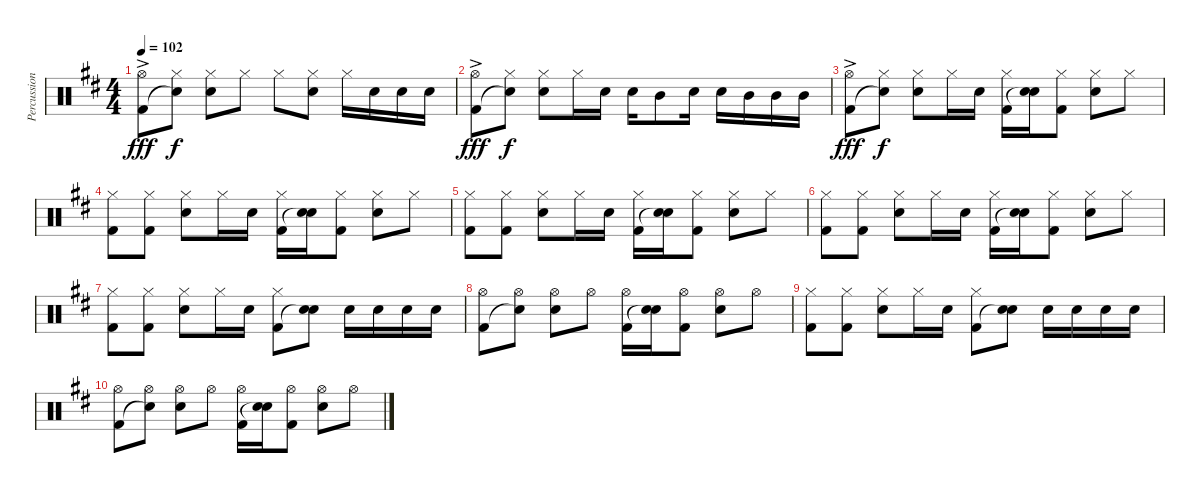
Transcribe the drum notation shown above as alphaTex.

\track ("Percussion" "Percussion") {instrument percussion}
\staff {score}
\articulation defaults
\ts (4 4)
\tempo 102
\clef neutral
\ks d
("Hi-Hat (open)"{ac} "Kick (hit) 2"{ac}).8{dy fff} ("Hi-Hat (closed)" "Snare (hit)"{t}).8{dy f} ("Hi-Hat (closed)" "Snare (hit) 2").8 "Hi-Hat (closed)".8 "Hi-Hat (closed)".8 ("Hi-Hat (closed)" "Snare (hit) 2").8 "Hi-Hat (closed)".16 "Snare (hit) 2".16 "Snare (hit) 2".16 "Snare (hit) 2".16 |
("Hi-Hat (open)"{ac} "Kick (hit) 2"{ac}).8{dy fff} ("Hi-Hat (closed)" "Snare (hit)"{t}).8{dy f} ("Hi-Hat (closed)" "Snare (hit) 2").8 "Hi-Hat (closed)".16 "Snare (hit) 2".16 "Snare (hit) 2".16 "Mid Tom (hit)".8 "Snare (hit) 2".16 "Snare (hit) 2".16 "Mid Tom (hit)".16 "Mid Tom (hit)".16 "Mid Tom (hit)".16 |
("Hi-Hat (open)"{ac} "Kick (hit) 2"{ac}).8{dy fff} ("Hi-Hat (closed)" "Snare (hit)"{t}).8{dy f} ("Hi-Hat (closed)" "Snare (hit) 2").8 "Hi-Hat (closed)".16 "Snare (hit) 2".16 ("Hi-Hat (closed)" "Kick (hit) 2").16 ("Snare (hit) 2" "Snare (hit)"{t}).16 ("Hi-Hat (closed)" "Kick (hit) 2").8 ("Hi-Hat (closed)" "Snare (hit) 2").8 "Hi-Hat (closed)".8 |
("Hi-Hat (closed)" "Kick (hit) 2").8 ("Hi-Hat (closed)" "Kick (hit) 2").8 ("Hi-Hat (closed)" "Snare (hit) 2").8 "Hi-Hat (closed)".16 "Snare (hit) 2".16 ("Hi-Hat (closed)" "Kick (hit) 2").16 ("Snare (hit) 2" "Snare (hit)"{t}).16 ("Hi-Hat (closed)" "Kick (hit) 2").8 ("Hi-Hat (closed)" "Snare (hit) 2").8 "Hi-Hat (closed)".8 |
("Hi-Hat (closed)" "Kick (hit) 2").8 ("Hi-Hat (closed)" "Kick (hit) 2").8 ("Hi-Hat (closed)" "Snare (hit) 2").8 "Hi-Hat (closed)".16 "Snare (hit) 2".16 ("Hi-Hat (closed)" "Kick (hit) 2").16 ("Snare (hit) 2" "Snare (hit)"{t}).16 ("Hi-Hat (closed)" "Kick (hit) 2").8 ("Hi-Hat (closed)" "Snare (hit) 2").8 "Hi-Hat (closed)".8 |
("Hi-Hat (closed)" "Kick (hit) 2").8 ("Hi-Hat (closed)" "Kick (hit) 2").8 ("Hi-Hat (closed)" "Snare (hit) 2").8 "Hi-Hat (closed)".16 "Snare (hit) 2".16 ("Hi-Hat (closed)" "Kick (hit) 2").16 ("Snare (hit) 2" "Snare (hit)"{t}).16 ("Hi-Hat (closed)" "Kick (hit) 2").8 ("Hi-Hat (closed)" "Snare (hit) 2").8 "Hi-Hat (closed)".8 |
("Hi-Hat (closed)" "Kick (hit) 2").8 ("Hi-Hat (closed)" "Kick (hit) 2").8 ("Hi-Hat (closed)" "Snare (hit) 2").8 "Hi-Hat (closed)".16 "Snare (hit) 2".16 ("Hi-Hat (closed)" "Kick (hit) 2").8 ("Snare (hit) 2" "Snare (hit)"{t}).8 "Snare (hit) 2".16 "Snare (hit) 2".16 "Snare (hit) 2".16 "Snare (hit) 2".16 |
("Hi-Hat (open)" "Kick (hit) 2").8 ("Hi-Hat (open)" "Snare (hit)"{t}).8 ("Hi-Hat (open)" "Snare (hit) 2").8 "Hi-Hat (open)".8 ("Hi-Hat (open)" "Kick (hit) 2").16 ("Snare (hit) 2" "Snare (hit)"{t}).16 ("Hi-Hat (open)" "Kick (hit) 2").8 ("Hi-Hat (open)" "Snare (hit) 2").8 "Hi-Hat (open)".8 |
("Hi-Hat (closed)" "Kick (hit) 2").8 ("Hi-Hat (closed)" "Kick (hit) 2").8 ("Hi-Hat (closed)" "Snare (hit) 2").8 "Hi-Hat (closed)".16 "Snare (hit) 2".16 ("Hi-Hat (closed)" "Kick (hit) 2").8 ("Snare (hit) 2" "Snare (hit)"{t}).8 "Snare (hit) 2".16 "Snare (hit) 2".16 "Snare (hit) 2".16 "Snare (hit) 2".16 |
("Hi-Hat (open)" "Kick (hit) 2").8 ("Hi-Hat (open)" "Snare (hit)"{t}).8 ("Hi-Hat (open)" "Snare (hit) 2").8 "Hi-Hat (open)".8 ("Hi-Hat (open)" "Kick (hit) 2").16 ("Snare (hit) 2" "Snare (hit)"{t}).16 ("Hi-Hat (open)" "Kick (hit) 2").8 ("Hi-Hat (open)" "Snare (hit) 2").8 "Hi-Hat (open)".8
